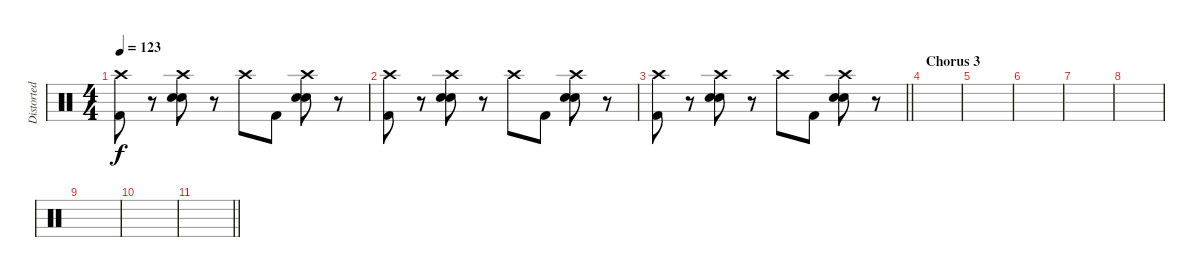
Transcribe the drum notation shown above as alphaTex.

\track ("Distorted Drums" "Distorted ") {instrument percussion}
\staff {score}
\articulation defaults
\ts (4 4)
\tempo 123
\clef neutral
\ks c
("Crash high (hit)" "Kick (hit) 2").8{dy f} r.8 ("Crash high (hit)" "Hand Clap (hit)" "Snare (hit) 2").8 r.8 "Crash high (hit)".8 "Kick (hit) 2".8 ("Crash high (hit)" "Hand Clap (hit)" "Snare (hit) 2").8 r.8 |
("Crash high (hit)" "Kick (hit) 2").8 r.8 ("Crash high (hit)" "Hand Clap (hit)" "Snare (hit) 2").8 r.8 "Crash high (hit)".8 "Kick (hit) 2".8 ("Crash high (hit)" "Hand Clap (hit)" "Snare (hit) 2").8 r.8 |
\barLineRight lightlight
("Crash high (hit)" "Kick (hit) 2").8 r.8 ("Crash high (hit)" "Hand Clap (hit)" "Snare (hit) 2").8 r.8 "Crash high (hit)".8 "Kick (hit) 2".8 ("Crash high (hit)" "Hand Clap (hit)" "Snare (hit) 2").8 r.8 |
\section ("" "Chorus 3")
|
|
|
|
|
|
|
\barLineRight lightlight
